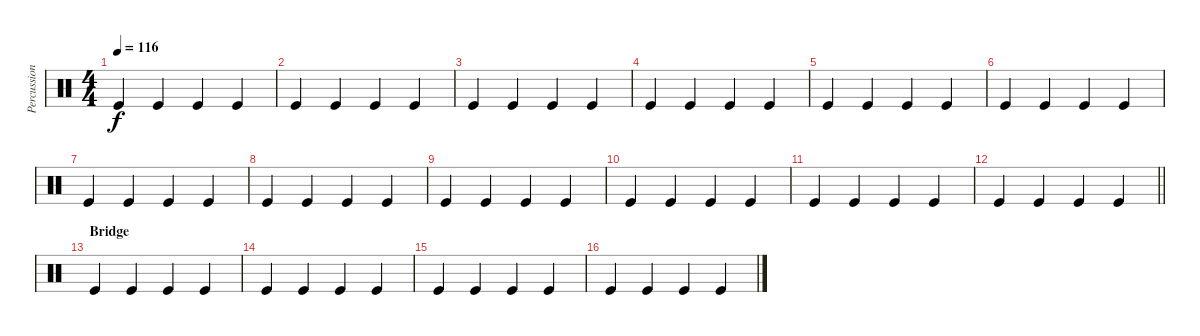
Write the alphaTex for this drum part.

\track ("Percussion" "Percussion") {instrument percussion}
\staff {score}
\articulation defaults
\ts (4 4)
\tempo 116
\clef neutral
\ks c "Kick (hit)".4{dy f} "Kick (hit)".4 "Kick (hit)".4 "Kick (hit)".4
|
"Kick (hit)".4 "Kick (hit)".4 "Kick (hit)".4 "Kick (hit)".4 |
"Kick (hit)".4 "Kick (hit)".4 "Kick (hit)".4 "Kick (hit)".4 |
"Kick (hit)".4 "Kick (hit)".4 "Kick (hit)".4 "Kick (hit)".4 |
"Kick (hit)".4 "Kick (hit)".4 "Kick (hit)".4 "Kick (hit)".4 |
"Kick (hit)".4 "Kick (hit)".4 "Kick (hit)".4 "Kick (hit)".4 |
"Kick (hit)".4 "Kick (hit)".4 "Kick (hit)".4 "Kick (hit)".4 |
"Kick (hit)".4 "Kick (hit)".4 "Kick (hit)".4 "Kick (hit)".4 |
"Kick (hit)".4 "Kick (hit)".4 "Kick (hit)".4 "Kick (hit)".4 |
"Kick (hit)".4 "Kick (hit)".4 "Kick (hit)".4 "Kick (hit)".4 |
"Kick (hit)".4 "Kick (hit)".4 "Kick (hit)".4 "Kick (hit)".4 |
\barLineRight lightlight "Kick (hit)".4 "Kick (hit)".4 "Kick (hit)".4 "Kick (hit)".4
|
\section ("" "Bridge")
"Kick (hit)".4 "Kick (hit)".4 "Kick (hit)".4 "Kick (hit)".4 |
"Kick (hit)".4 "Kick (hit)".4 "Kick (hit)".4 "Kick (hit)".4 |
"Kick (hit)".4 "Kick (hit)".4 "Kick (hit)".4 "Kick (hit)".4 |
"Kick (hit)".4 "Kick (hit)".4 "Kick (hit)".4 "Kick (hit)".4
